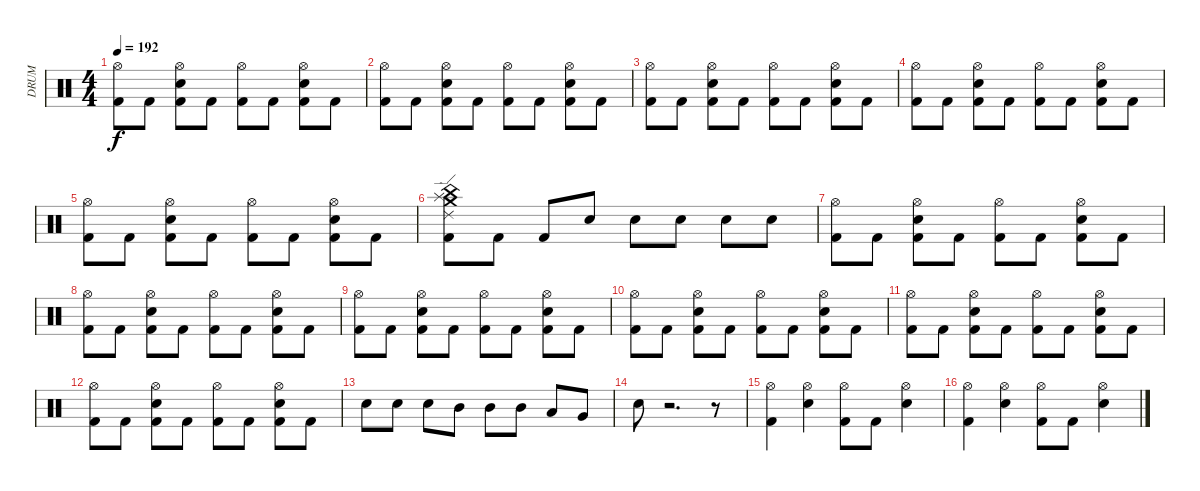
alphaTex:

\track ("     DRUM" "     DRUM") {instrument percussion}
\staff {score}
\articulation defaults
\ts (4 4)
\tempo 192
\clef neutral
\ks c
("Hi-Hat (open)" "Kick (hit) 2").8{dy f} "Kick (hit) 2".8 ("Electric Snare (hit)" "Hi-Hat (open)" "Kick (hit) 2").8 "Kick (hit) 2".8 ("Hi-Hat (open)" "Kick (hit) 2").8 "Kick (hit) 2".8 ("Electric Snare (hit)" "Hi-Hat (open)" "Kick (hit) 2").8 "Kick (hit) 2".8 |
("Hi-Hat (open)" "Kick (hit) 2").8 "Kick (hit) 2".8 ("Electric Snare (hit)" "Hi-Hat (open)" "Kick (hit) 2").8 "Kick (hit) 2".8 ("Hi-Hat (open)" "Kick (hit) 2").8 "Kick (hit) 2".8 ("Electric Snare (hit)" "Hi-Hat (open)" "Kick (hit) 2").8 "Kick (hit) 2".8 |
("Hi-Hat (open)" "Kick (hit) 2").8 "Kick (hit) 2".8 ("Electric Snare (hit)" "Hi-Hat (open)" "Kick (hit) 2").8 "Kick (hit) 2".8 ("Hi-Hat (open)" "Kick (hit) 2").8 "Kick (hit) 2".8 ("Electric Snare (hit)" "Hi-Hat (open)" "Kick (hit) 2").8 "Kick (hit) 2".8 |
("Hi-Hat (open)" "Kick (hit) 2").8 "Kick (hit) 2".8 ("Electric Snare (hit)" "Hi-Hat (open)" "Kick (hit) 2").8 "Kick (hit) 2".8 ("Hi-Hat (open)" "Kick (hit) 2").8 "Kick (hit) 2".8 ("Electric Snare (hit)" "Hi-Hat (open)" "Kick (hit) 2").8 "Kick (hit) 2".8 |
("Hi-Hat (open)" "Kick (hit) 2").8 "Kick (hit) 2".8 ("Electric Snare (hit)" "Hi-Hat (open)" "Kick (hit) 2").8 "Kick (hit) 2".8 ("Hi-Hat (open)" "Kick (hit) 2").8 "Kick (hit) 2".8 ("Electric Snare (hit)" "Hi-Hat (open)" "Kick (hit) 2").8 "Kick (hit) 2".8 |
("Ride (edge) 2" "Crash medium (hit)" "Splash (hit)" "China (hit)" "Kick (hit) 2").8 "Kick (hit) 2".8 "Kick (hit) 2".8 "Electric Snare (hit)".8{volume 6} "Electric Snare (hit)".8{volume 7} "Electric Snare (hit)".8{volume 8} "Electric Snare (hit)".8{volume 9} "Electric Snare (hit)".8{volume 10} |
("Hi-Hat (open)" "Kick (hit) 2").8{volume 11} "Kick (hit) 2".8 ("Electric Snare (hit)" "Hi-Hat (open)" "Kick (hit) 2").8 "Kick (hit) 2".8 ("Hi-Hat (open)" "Kick (hit) 2").8 "Kick (hit) 2".8 ("Electric Snare (hit)" "Hi-Hat (open)" "Kick (hit) 2").8 "Kick (hit) 2".8 |
("Hi-Hat (open)" "Kick (hit) 2").8 "Kick (hit) 2".8 ("Electric Snare (hit)" "Hi-Hat (open)" "Kick (hit) 2").8 "Kick (hit) 2".8 ("Hi-Hat (open)" "Kick (hit) 2").8 "Kick (hit) 2".8 ("Electric Snare (hit)" "Hi-Hat (open)" "Kick (hit) 2").8 "Kick (hit) 2".8 |
("Hi-Hat (open)" "Kick (hit) 2").8 "Kick (hit) 2".8 ("Electric Snare (hit)" "Hi-Hat (open)" "Kick (hit) 2").8 "Kick (hit) 2".8 ("Hi-Hat (open)" "Kick (hit) 2").8 "Kick (hit) 2".8 ("Electric Snare (hit)" "Hi-Hat (open)" "Kick (hit) 2").8 "Kick (hit) 2".8 |
("Hi-Hat (open)" "Kick (hit) 2").8 "Kick (hit) 2".8 ("Electric Snare (hit)" "Hi-Hat (open)" "Kick (hit) 2").8 "Kick (hit) 2".8 ("Hi-Hat (open)" "Kick (hit) 2").8 "Kick (hit) 2".8 ("Electric Snare (hit)" "Hi-Hat (open)" "Kick (hit) 2").8 "Kick (hit) 2".8 |
("Hi-Hat (open)" "Kick (hit) 2").8 "Kick (hit) 2".8 ("Electric Snare (hit)" "Hi-Hat (open)" "Kick (hit) 2").8 "Kick (hit) 2".8 ("Hi-Hat (open)" "Kick (hit) 2").8 "Kick (hit) 2".8 ("Electric Snare (hit)" "Hi-Hat (open)" "Kick (hit) 2").8 "Kick (hit) 2".8 |
("Hi-Hat (open)" "Kick (hit) 2").8 "Kick (hit) 2".8 ("Electric Snare (hit)" "Hi-Hat (open)" "Kick (hit) 2").8 "Kick (hit) 2".8 ("Hi-Hat (open)" "Kick (hit) 2").8 "Kick (hit) 2".8 ("Electric Snare (hit)" "Hi-Hat (open)" "Kick (hit) 2").8 "Kick (hit) 2".8 |
"Electric Snare (hit)".8 "Electric Snare (hit)".8 "Electric Snare (hit)".8 "Mid Tom (hit)".8 "Mid Tom (hit)".8 "Mid Tom (hit)".8 "Low Tom (hit)".8 "Very Low Tom (hit)".8 |
"Electric Snare (hit)".8 r.2{d} r.8 |
("Hi-Hat (open)" "Kick (hit) 2").4 ("Hi-Hat (open)" "Electric Snare (hit)").4 ("Hi-Hat (open)" "Kick (hit) 2").8 "Kick (hit) 2".8 ("Hi-Hat (open)" "Electric Snare (hit)").4 |
("Hi-Hat (open)" "Kick (hit) 2").4 ("Hi-Hat (open)" "Electric Snare (hit)").4 ("Hi-Hat (open)" "Kick (hit) 2").8 "Kick (hit) 2".8 ("Hi-Hat (open)" "Electric Snare (hit)").4
